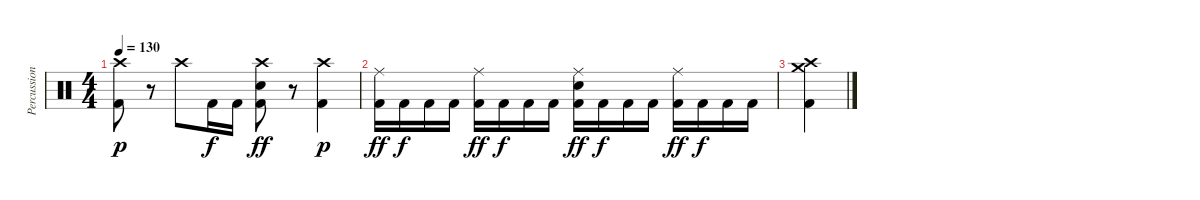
\track ("Percussion" "Percussion") {instrument percussion}
\staff {score}
\articulation defaults
\ts (4 4)
\tempo 130
\clef neutral
\ks c
("Crash high (hit)" "Kick (hit) 2").8{dy p} r.8 "Crash high (hit)".8 "Kick (hit) 2".16{dy f} "Kick (hit) 2".16 ("Crash high (hit)" "Electric Snare (hit)" "Kick (hit) 2").8{dy ff} r.8 ("Crash high (hit)" "Kick (hit) 2").4{dy p} |
("Ride (middle)" "Kick (hit) 2").16{dy ff} "Kick (hit) 2".16{dy f} "Kick (hit) 2".16 "Kick (hit) 2".16 ("Ride (middle)" "Kick (hit) 2").16{dy ff} "Kick (hit) 2".16{dy f} "Kick (hit) 2".16 "Kick (hit) 2".16 ("Electric Snare (hit)" "Ride (middle)" "Kick (hit) 2").16{dy ff} "Kick (hit) 2".16{dy f} "Kick (hit) 2".16 "Kick (hit) 2".16 ("Ride (middle)" "Kick (hit) 2").16{dy ff} "Kick (hit) 2".16{dy f} "Kick (hit) 2".16 "Kick (hit) 2".16 |
("Crash high (hit)" "Kick (hit) 2" "Crash medium (hit)").4
